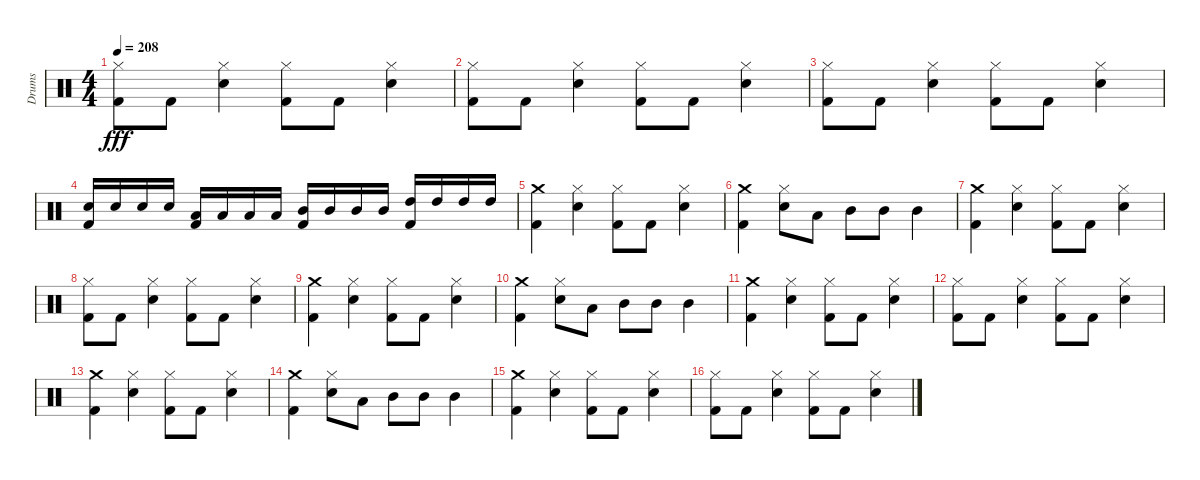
\track ("Drums" "Drums") {instrument percussion}
\staff {score}
\articulation defaults
\ts (4 4)
\tempo 208
\clef neutral
\ks c
("Kick (hit) 2" "Hi-Hat (closed)").8{dy fff} "Kick (hit) 2".8 ("Snare (hit) 2" "Hi-Hat (closed)").4 ("Kick (hit) 2" "Hi-Hat (closed)").8 "Kick (hit) 2".8 ("Snare (hit) 2" "Hi-Hat (closed)").4 |
("Kick (hit) 2" "Hi-Hat (closed)").8 "Kick (hit) 2".8 ("Snare (hit) 2" "Hi-Hat (closed)").4 ("Kick (hit) 2" "Hi-Hat (closed)").8 "Kick (hit) 2".8 ("Snare (hit) 2" "Hi-Hat (closed)").4 |
("Kick (hit) 2" "Hi-Hat (closed)").8 "Kick (hit) 2".8 ("Snare (hit) 2" "Hi-Hat (closed)").4 ("Kick (hit) 2" "Hi-Hat (closed)").8 "Kick (hit) 2".8 ("Snare (hit) 2" "Hi-Hat (closed)").4 |
("Snare (hit) 2" "Kick (hit) 2").16 "Snare (hit) 2".16 "Snare (hit) 2".16 "Snare (hit) 2".16 ("Low Tom (hit)" "Kick (hit) 2").16 "Low Tom (hit)".16 "Low Tom (hit)".16 "Low Tom (hit)".16 ("Mid Tom (hit)" "Kick (hit) 2").16 "Mid Tom (hit)".16 "Mid Tom (hit)".16 "Mid Tom (hit)".16 ("High Tom (hit)" "Kick (hit) 2").16 "High Tom (hit)".16 "High Tom (hit)".16 "High Tom (hit)".16 |
("Kick (hit) 2" "Crash medium (hit)").4 ("Snare (hit) 2" "Hi-Hat (closed)").4 ("Kick (hit) 2" "Hi-Hat (closed)").8 "Kick (hit) 2".8 ("Snare (hit) 2" "Hi-Hat (closed)").4 |
("Kick (hit) 2" "Crash medium (hit)").4 ("Snare (hit) 2" "Hi-Hat (closed)").8 "Low Tom (hit)".8 "Mid Tom (hit)".8 "Mid Tom (hit)".8 "Mid Tom (hit)".4 |
("Kick (hit) 2" "Crash medium (hit)").4 ("Snare (hit) 2" "Hi-Hat (closed)").4 ("Kick (hit) 2" "Hi-Hat (closed)").8 "Kick (hit) 2".8 ("Snare (hit) 2" "Hi-Hat (closed)").4 |
("Hi-Hat (closed)" "Kick (hit) 2").8 "Kick (hit) 2".8 ("Snare (hit) 2" "Hi-Hat (closed)").4 ("Hi-Hat (closed)" "Kick (hit) 2").8 "Kick (hit) 2".8 ("Snare (hit) 2" "Hi-Hat (closed)").4 |
("Kick (hit) 2" "Crash medium (hit)").4 ("Snare (hit) 2" "Hi-Hat (closed)").4 ("Kick (hit) 2" "Hi-Hat (closed)").8 "Kick (hit) 2".8 ("Snare (hit) 2" "Hi-Hat (closed)").4 |
("Kick (hit) 2" "Crash medium (hit)").4 ("Snare (hit) 2" "Hi-Hat (closed)").8 "Low Tom (hit)".8 "Mid Tom (hit)".8 "Mid Tom (hit)".8 "Mid Tom (hit)".4 |
("Kick (hit) 2" "Crash medium (hit)").4 ("Snare (hit) 2" "Hi-Hat (closed)").4 ("Kick (hit) 2" "Hi-Hat (closed)").8 "Kick (hit) 2".8 ("Snare (hit) 2" "Hi-Hat (closed)").4 |
("Hi-Hat (closed)" "Kick (hit) 2").8 "Kick (hit) 2".8 ("Snare (hit) 2" "Hi-Hat (closed)").4 ("Hi-Hat (closed)" "Kick (hit) 2").8 "Kick (hit) 2".8 ("Snare (hit) 2" "Hi-Hat (closed)").4 |
("Kick (hit) 2" "Crash medium (hit)").4 ("Snare (hit) 2" "Hi-Hat (closed)").4 ("Kick (hit) 2" "Hi-Hat (closed)").8 "Kick (hit) 2".8 ("Snare (hit) 2" "Hi-Hat (closed)").4 |
("Kick (hit) 2" "Crash medium (hit)").4 ("Snare (hit) 2" "Hi-Hat (closed)").8 "Low Tom (hit)".8 "Mid Tom (hit)".8 "Mid Tom (hit)".8 "Mid Tom (hit)".4 |
("Kick (hit) 2" "Crash medium (hit)").4 ("Snare (hit) 2" "Hi-Hat (closed)").4 ("Kick (hit) 2" "Hi-Hat (closed)").8 "Kick (hit) 2".8 ("Snare (hit) 2" "Hi-Hat (closed)").4 |
("Hi-Hat (closed)" "Kick (hit) 2").8 "Kick (hit) 2".8 ("Snare (hit) 2" "Hi-Hat (closed)").4 ("Hi-Hat (closed)" "Kick (hit) 2").8 "Kick (hit) 2".8 ("Snare (hit) 2" "Hi-Hat (closed)").4
